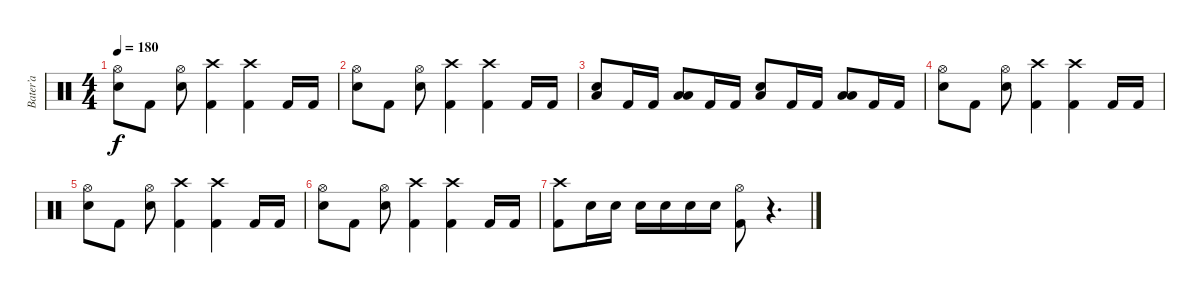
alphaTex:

\track ("Bater’a" "Bater’a") {instrument percussion bank 211}
\staff {score}
\articulation defaults
\ts (4 4)
\tempo 180
\clef neutral
\ks c
("Hi-Hat (open)" "Electric Snare (hit)").8{dy f} "Kick (hit) 2".8 ("Hi-Hat (open)" "Electric Snare (hit)").8 ("Crash high (hit)" "Kick (hit) 2").4 ("Crash high (hit)" "Kick (hit) 2").4 "Kick (hit) 2".16 "Kick (hit) 2".16 |
("Hi-Hat (open)" "Electric Snare (hit)").8 "Kick (hit) 2".8 ("Hi-Hat (open)" "Electric Snare (hit)").8 ("Crash high (hit)" "Kick (hit) 2").4 ("Crash high (hit)" "Kick (hit) 2").4 "Kick (hit) 2".16 "Kick (hit) 2".16 |
("Low Floor Tom (hit)" "Electric Snare (hit)").8 "Kick (hit) 2".16 "Kick (hit) 2".16 ("Low Tom (hit)" "Low Floor Tom (hit)").8 "Kick (hit) 2".16 "Kick (hit) 2".16 ("Electric Snare (hit)" "Low Floor Tom (hit)").8 "Kick (hit) 2".16 "Kick (hit) 2".16 ("Low Tom (hit)" "Low Floor Tom (hit)").8 "Kick (hit) 2".16 "Kick (hit) 2".16 |
("Hi-Hat (open)" "Electric Snare (hit)").8 "Kick (hit) 2".8 ("Hi-Hat (open)" "Electric Snare (hit)").8 ("Crash high (hit)" "Kick (hit) 2").4 ("Crash high (hit)" "Kick (hit) 2").4 "Kick (hit) 2".16 "Kick (hit) 2".16 |
("Hi-Hat (open)" "Electric Snare (hit)").8 "Kick (hit) 2".8 ("Hi-Hat (open)" "Electric Snare (hit)").8 ("Crash high (hit)" "Kick (hit) 2").4 ("Crash high (hit)" "Kick (hit) 2").4 "Kick (hit) 2".16 "Kick (hit) 2".16 |
("Hi-Hat (open)" "Electric Snare (hit)").8 "Kick (hit) 2".8 ("Hi-Hat (open)" "Electric Snare (hit)").8 ("Crash high (hit)" "Kick (hit) 2").4 ("Crash high (hit)" "Kick (hit) 2").4 "Kick (hit) 2".16 "Kick (hit) 2".16 |
("Crash high (hit)" "Kick (hit) 2").8 "Electric Snare (hit)".16 "Electric Snare (hit)".16 "Electric Snare (hit)".16 "Electric Snare (hit)".16 "Electric Snare (hit)".16 "Electric Snare (hit)".16 ("Hi-Hat (open)" "Kick (hit) 2").8 r.4{d}
